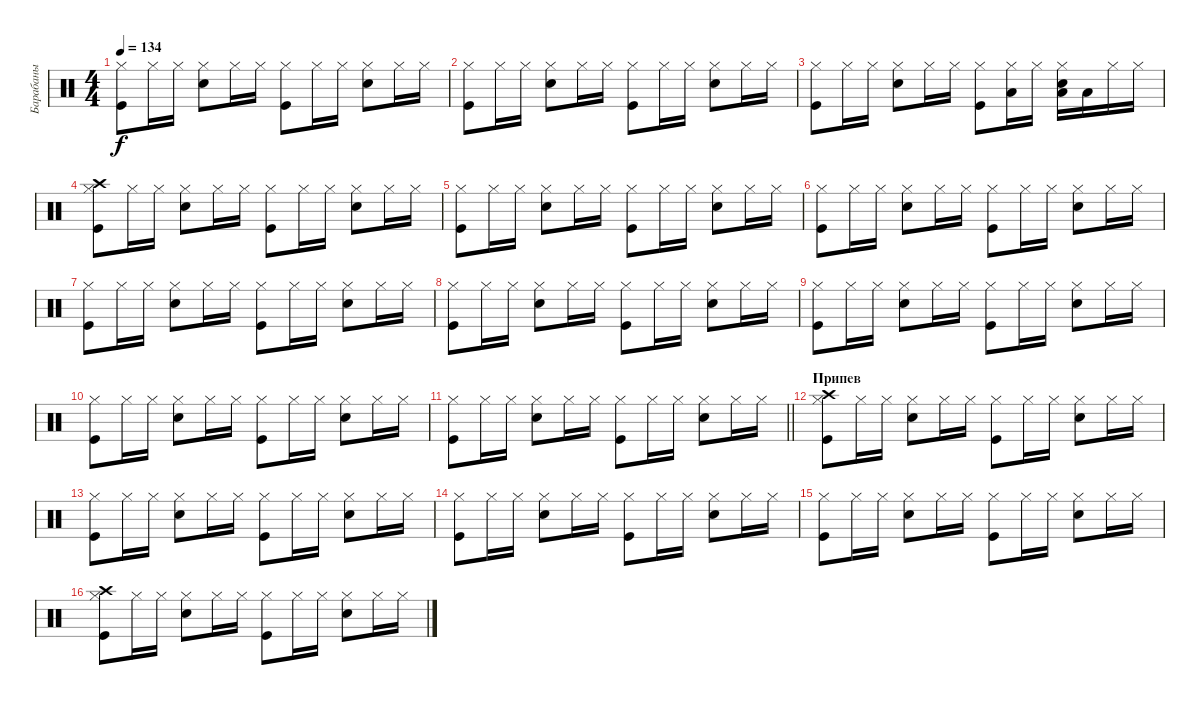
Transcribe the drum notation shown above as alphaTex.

\track ("Барабаны" "Барабаны") {instrument percussion}
\staff {score}
\articulation defaults
\ts (4 4)
\tempo 134
\clef neutral
\ks c
("Kick (hit)" "Hi-Hat (closed)").8{dy f} "Hi-Hat (closed)".16 "Hi-Hat (closed)".16 ("Snare (hit) 2" "Hi-Hat (closed)").8 "Hi-Hat (closed)".16 "Hi-Hat (closed)".16 ("Kick (hit)" "Hi-Hat (closed)").8 "Hi-Hat (closed)".16 "Hi-Hat (closed)".16 ("Snare (hit) 2" "Hi-Hat (closed)").8 "Hi-Hat (closed)".16 "Hi-Hat (closed)".16 |
("Kick (hit)" "Hi-Hat (closed)").8 "Hi-Hat (closed)".16 "Hi-Hat (closed)".16 ("Snare (hit) 2" "Hi-Hat (closed)").8 "Hi-Hat (closed)".16 "Hi-Hat (closed)".16 ("Kick (hit)" "Hi-Hat (closed)").8 "Hi-Hat (closed)".16 "Hi-Hat (closed)".16 ("Snare (hit) 2" "Hi-Hat (closed)").8 "Hi-Hat (closed)".16 "Hi-Hat (closed)".16 |
("Kick (hit)" "Hi-Hat (closed)").8 "Hi-Hat (closed)".16 "Hi-Hat (closed)".16 ("Snare (hit) 2" "Hi-Hat (closed)").8 "Hi-Hat (closed)".16 "Hi-Hat (closed)".16 ("Kick (hit)" "Hi-Hat (closed)").8 ("Hi-Hat (closed)" "Low Tom (hit)").16 "Hi-Hat (closed)".16 ("Snare (hit) 2" "Hi-Hat (closed)" "Low Tom (hit)").16 "Low Tom (hit)".16 "Hi-Hat (closed)".16 "Hi-Hat (closed)".16 |
("Kick (hit)" "Hi-Hat (closed)" "Crash high (hit)").8 "Hi-Hat (closed)".16 "Hi-Hat (closed)".16 ("Snare (hit) 2" "Hi-Hat (closed)").8 "Hi-Hat (closed)".16 "Hi-Hat (closed)".16 ("Kick (hit)" "Hi-Hat (closed)").8 "Hi-Hat (closed)".16 "Hi-Hat (closed)".16 ("Snare (hit) 2" "Hi-Hat (closed)").8 "Hi-Hat (closed)".16 "Hi-Hat (closed)".16 |
("Kick (hit)" "Hi-Hat (closed)").8 "Hi-Hat (closed)".16 "Hi-Hat (closed)".16 ("Snare (hit) 2" "Hi-Hat (closed)").8 "Hi-Hat (closed)".16 "Hi-Hat (closed)".16 ("Kick (hit)" "Hi-Hat (closed)").8 "Hi-Hat (closed)".16 "Hi-Hat (closed)".16 ("Snare (hit) 2" "Hi-Hat (closed)").8 "Hi-Hat (closed)".16 "Hi-Hat (closed)".16 |
("Kick (hit)" "Hi-Hat (closed)").8 "Hi-Hat (closed)".16 "Hi-Hat (closed)".16 ("Snare (hit) 2" "Hi-Hat (closed)").8 "Hi-Hat (closed)".16 "Hi-Hat (closed)".16 ("Kick (hit)" "Hi-Hat (closed)").8 "Hi-Hat (closed)".16 "Hi-Hat (closed)".16 ("Snare (hit) 2" "Hi-Hat (closed)").8 "Hi-Hat (closed)".16 "Hi-Hat (closed)".16 |
("Kick (hit)" "Hi-Hat (closed)").8 "Hi-Hat (closed)".16 "Hi-Hat (closed)".16 ("Snare (hit) 2" "Hi-Hat (closed)").8 "Hi-Hat (closed)".16 "Hi-Hat (closed)".16 ("Kick (hit)" "Hi-Hat (closed)").8 "Hi-Hat (closed)".16 "Hi-Hat (closed)".16 ("Snare (hit) 2" "Hi-Hat (closed)").8 "Hi-Hat (closed)".16 "Hi-Hat (closed)".16 |
("Kick (hit)" "Hi-Hat (closed)").8 "Hi-Hat (closed)".16 "Hi-Hat (closed)".16 ("Snare (hit) 2" "Hi-Hat (closed)").8 "Hi-Hat (closed)".16 "Hi-Hat (closed)".16 ("Kick (hit)" "Hi-Hat (closed)").8 "Hi-Hat (closed)".16 "Hi-Hat (closed)".16 ("Snare (hit) 2" "Hi-Hat (closed)").8 "Hi-Hat (closed)".16 "Hi-Hat (closed)".16 |
("Kick (hit)" "Hi-Hat (closed)").8 "Hi-Hat (closed)".16 "Hi-Hat (closed)".16 ("Snare (hit) 2" "Hi-Hat (closed)").8 "Hi-Hat (closed)".16 "Hi-Hat (closed)".16 ("Kick (hit)" "Hi-Hat (closed)").8 "Hi-Hat (closed)".16 "Hi-Hat (closed)".16 ("Snare (hit) 2" "Hi-Hat (closed)").8 "Hi-Hat (closed)".16 "Hi-Hat (closed)".16 |
("Kick (hit)" "Hi-Hat (closed)").8 "Hi-Hat (closed)".16 "Hi-Hat (closed)".16 ("Snare (hit) 2" "Hi-Hat (closed)").8 "Hi-Hat (closed)".16 "Hi-Hat (closed)".16 ("Kick (hit)" "Hi-Hat (closed)").8 "Hi-Hat (closed)".16 "Hi-Hat (closed)".16 ("Snare (hit) 2" "Hi-Hat (closed)").8 "Hi-Hat (closed)".16 "Hi-Hat (closed)".16 |
\barLineRight lightlight
("Kick (hit)" "Hi-Hat (closed)").8 "Hi-Hat (closed)".16 "Hi-Hat (closed)".16 ("Snare (hit) 2" "Hi-Hat (closed)").8 "Hi-Hat (closed)".16 "Hi-Hat (closed)".16 ("Kick (hit)" "Hi-Hat (closed)").8 "Hi-Hat (closed)".16 "Hi-Hat (closed)".16 ("Snare (hit) 2" "Hi-Hat (closed)").8 "Hi-Hat (closed)".16 "Hi-Hat (closed)".16 |
\section ("" "Припев")
("Kick (hit)" "Hi-Hat (closed)" "Crash high (hit)").8 "Hi-Hat (closed)".16 "Hi-Hat (closed)".16 ("Snare (hit) 2" "Hi-Hat (closed)").8 "Hi-Hat (closed)".16 "Hi-Hat (closed)".16 ("Kick (hit)" "Hi-Hat (closed)").8 "Hi-Hat (closed)".16 "Hi-Hat (closed)".16 ("Snare (hit) 2" "Hi-Hat (closed)").8 "Hi-Hat (closed)".16 "Hi-Hat (closed)".16 |
("Kick (hit)" "Hi-Hat (closed)").8 "Hi-Hat (closed)".16 "Hi-Hat (closed)".16 ("Snare (hit) 2" "Hi-Hat (closed)").8 "Hi-Hat (closed)".16 "Hi-Hat (closed)".16 ("Kick (hit)" "Hi-Hat (closed)").8 "Hi-Hat (closed)".16 "Hi-Hat (closed)".16 ("Snare (hit) 2" "Hi-Hat (closed)").8 "Hi-Hat (closed)".16 "Hi-Hat (closed)".16 |
("Kick (hit)" "Hi-Hat (closed)").8 "Hi-Hat (closed)".16 "Hi-Hat (closed)".16 ("Snare (hit) 2" "Hi-Hat (closed)").8 "Hi-Hat (closed)".16 "Hi-Hat (closed)".16 ("Kick (hit)" "Hi-Hat (closed)").8 "Hi-Hat (closed)".16 "Hi-Hat (closed)".16 ("Snare (hit) 2" "Hi-Hat (closed)").8 "Hi-Hat (closed)".16 "Hi-Hat (closed)".16 |
("Kick (hit)" "Hi-Hat (closed)").8 "Hi-Hat (closed)".16 "Hi-Hat (closed)".16 ("Snare (hit) 2" "Hi-Hat (closed)").8 "Hi-Hat (closed)".16 "Hi-Hat (closed)".16 ("Kick (hit)" "Hi-Hat (closed)").8 "Hi-Hat (closed)".16 "Hi-Hat (closed)".16 ("Snare (hit) 2" "Hi-Hat (closed)").8 "Hi-Hat (closed)".16 "Hi-Hat (closed)".16 |
("Kick (hit)" "Hi-Hat (closed)" "Crash high (hit)").8 "Hi-Hat (closed)".16 "Hi-Hat (closed)".16 ("Snare (hit) 2" "Hi-Hat (closed)").8 "Hi-Hat (closed)".16 "Hi-Hat (closed)".16 ("Kick (hit)" "Hi-Hat (closed)").8 "Hi-Hat (closed)".16 "Hi-Hat (closed)".16 ("Snare (hit) 2" "Hi-Hat (closed)").8 "Hi-Hat (closed)".16 "Hi-Hat (closed)".16
